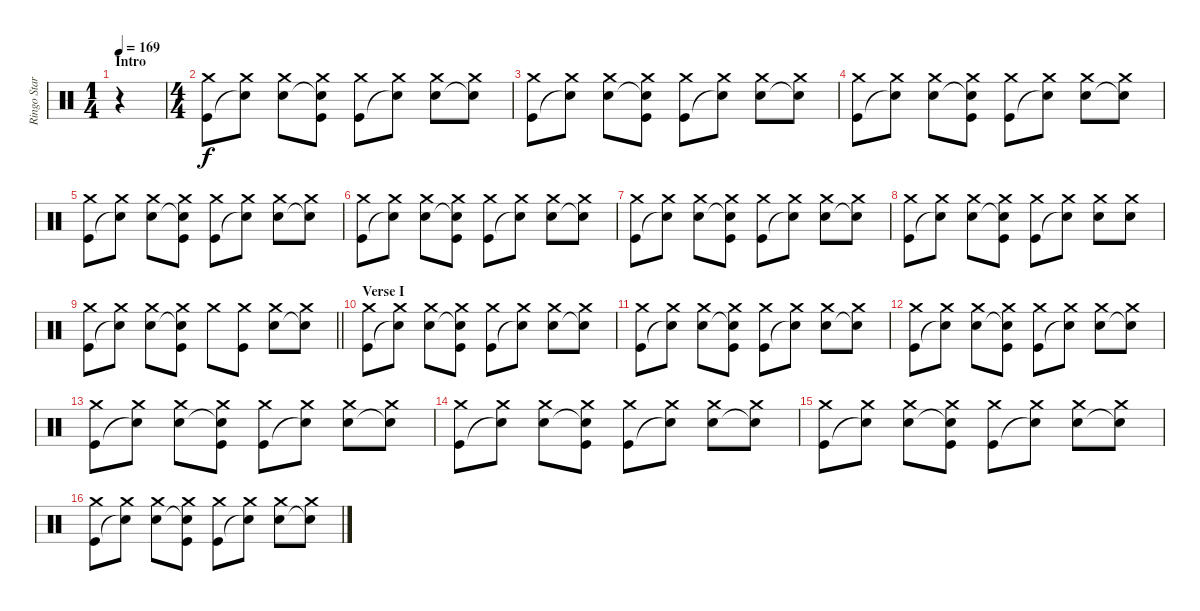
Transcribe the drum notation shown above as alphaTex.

\track ("Ringo Starr" "Ringo Star") {instrument percussion}
\staff {score}
\articulation defaults
\ts (1 4)
\section ("" "Intro")
\tempo 169
\clef neutral
\ks c
r.4{dy f} |
\ts (4 4)
("Crash medium (hit)" "Kick (hit)").8 ("Crash medium (hit)" "Snare (hit)"{t}).8 ("Crash medium (hit)" "Snare (hit) 2").8 ("Crash medium (hit)" "Snare (hit)"{t} "Kick (hit)").8 ("Crash medium (hit)" "Kick (hit)").8 ("Crash medium (hit)" "Snare (hit)"{t}).8 ("Crash medium (hit)" "Snare (hit) 2").8 ("Crash medium (hit)" "Snare (hit)"{t}).8 |
("Crash medium (hit)" "Kick (hit)").8 ("Crash medium (hit)" "Snare (hit)"{t}).8 ("Crash medium (hit)" "Snare (hit) 2").8 ("Crash medium (hit)" "Snare (hit)"{t} "Kick (hit)").8 ("Crash medium (hit)" "Kick (hit)").8 ("Crash medium (hit)" "Snare (hit)"{t}).8 ("Crash medium (hit)" "Snare (hit) 2").8 ("Crash medium (hit)" "Snare (hit)"{t}).8 |
("Crash medium (hit)" "Kick (hit)").8 ("Crash medium (hit)" "Snare (hit)"{t}).8 ("Crash medium (hit)" "Snare (hit) 2").8 ("Crash medium (hit)" "Snare (hit)"{t} "Kick (hit)").8 ("Crash medium (hit)" "Kick (hit)").8 ("Crash medium (hit)" "Snare (hit)"{t}).8 ("Crash medium (hit)" "Snare (hit) 2").8 ("Crash medium (hit)" "Snare (hit)"{t}).8 |
("Crash medium (hit)" "Kick (hit)").8 ("Crash medium (hit)" "Snare (hit)"{t}).8 ("Crash medium (hit)" "Snare (hit) 2").8 ("Crash medium (hit)" "Snare (hit)"{t} "Kick (hit)").8 ("Crash medium (hit)" "Kick (hit)").8 ("Crash medium (hit)" "Snare (hit)"{t}).8 ("Crash medium (hit)" "Snare (hit) 2").8 ("Crash medium (hit)" "Snare (hit)"{t}).8 |
("Crash medium (hit)" "Kick (hit)").8 ("Crash medium (hit)" "Snare (hit)"{t}).8 ("Crash medium (hit)" "Snare (hit) 2").8 ("Crash medium (hit)" "Snare (hit)"{t} "Kick (hit)").8 ("Crash medium (hit)" "Kick (hit)").8 ("Crash medium (hit)" "Snare (hit)"{t}).8 ("Crash medium (hit)" "Snare (hit) 2").8 ("Crash medium (hit)" "Snare (hit)"{t}).8 |
("Crash medium (hit)" "Kick (hit)").8 ("Crash medium (hit)" "Snare (hit)"{t}).8 ("Crash medium (hit)" "Snare (hit) 2").8 ("Crash medium (hit)" "Snare (hit)"{t} "Kick (hit)").8 ("Crash medium (hit)" "Kick (hit)").8 ("Crash medium (hit)" "Snare (hit)"{t}).8 ("Crash medium (hit)" "Snare (hit) 2").8 ("Crash medium (hit)" "Snare (hit)"{t}).8 |
("Crash medium (hit)" "Kick (hit)").8 ("Crash medium (hit)" "Snare (hit)"{t}).8 ("Crash medium (hit)" "Snare (hit) 2").8 ("Crash medium (hit)" "Snare (hit)"{t} "Kick (hit)").8 ("Crash medium (hit)" "Kick (hit)").8 ("Crash medium (hit)" "Snare (hit)"{t}).8 ("Crash medium (hit)" "Snare (hit) 2").8 ("Crash medium (hit)" "Snare (hit) 2").8 |
\barLineRight lightlight
("Crash medium (hit)" "Kick (hit)").8 ("Crash medium (hit)" "Snare (hit)"{t}).8 ("Crash medium (hit)" "Snare (hit) 2").8 ("Crash medium (hit)" "Snare (hit)"{t} "Kick (hit)").8 "Crash medium (hit)".8 ("Crash medium (hit)" "Kick (hit)").8 ("Crash medium (hit)" "Snare (hit) 2").8 ("Crash medium (hit)" "Snare (hit)"{t}).8 |
\section ("" "Verse I")
("Crash medium (hit)" "Kick (hit)").8 ("Crash medium (hit)" "Snare (hit)"{t}).8 ("Crash medium (hit)" "Snare (hit) 2").8 ("Crash medium (hit)" "Snare (hit)"{t} "Kick (hit)").8 ("Crash medium (hit)" "Kick (hit)").8 ("Crash medium (hit)" "Snare (hit)"{t}).8 ("Crash medium (hit)" "Snare (hit) 2").8 ("Crash medium (hit)" "Snare (hit)"{t}).8 |
("Crash medium (hit)" "Kick (hit)").8 ("Crash medium (hit)" "Snare (hit)"{t}).8 ("Crash medium (hit)" "Snare (hit) 2").8 ("Crash medium (hit)" "Snare (hit)"{t} "Kick (hit)").8 ("Crash medium (hit)" "Kick (hit)").8 ("Crash medium (hit)" "Snare (hit)"{t}).8 ("Crash medium (hit)" "Snare (hit) 2").8 ("Crash medium (hit)" "Snare (hit)"{t}).8 |
("Crash medium (hit)" "Kick (hit)").8 ("Crash medium (hit)" "Snare (hit)"{t}).8 ("Crash medium (hit)" "Snare (hit) 2").8 ("Crash medium (hit)" "Snare (hit)"{t} "Kick (hit)").8 ("Crash medium (hit)" "Kick (hit)").8 ("Crash medium (hit)" "Snare (hit)"{t}).8 ("Crash medium (hit)" "Snare (hit) 2").8 ("Crash medium (hit)" "Snare (hit)"{t}).8 |
("Crash medium (hit)" "Kick (hit)").8 ("Crash medium (hit)" "Snare (hit)"{t}).8 ("Crash medium (hit)" "Snare (hit) 2").8 ("Crash medium (hit)" "Snare (hit)"{t} "Kick (hit)").8 ("Crash medium (hit)" "Kick (hit)").8 ("Crash medium (hit)" "Snare (hit)"{t}).8 ("Crash medium (hit)" "Snare (hit) 2").8 ("Crash medium (hit)" "Snare (hit)"{t}).8 |
("Crash medium (hit)" "Kick (hit)").8 ("Crash medium (hit)" "Snare (hit)"{t}).8 ("Crash medium (hit)" "Snare (hit) 2").8 ("Crash medium (hit)" "Snare (hit)"{t} "Kick (hit)").8 ("Crash medium (hit)" "Kick (hit)").8 ("Crash medium (hit)" "Snare (hit)"{t}).8 ("Crash medium (hit)" "Snare (hit) 2").8 ("Crash medium (hit)" "Snare (hit)"{t}).8 |
("Crash medium (hit)" "Kick (hit)").8 ("Crash medium (hit)" "Snare (hit)"{t}).8 ("Crash medium (hit)" "Snare (hit) 2").8 ("Crash medium (hit)" "Snare (hit)"{t} "Kick (hit)").8 ("Crash medium (hit)" "Kick (hit)").8 ("Crash medium (hit)" "Snare (hit)"{t}).8 ("Crash medium (hit)" "Snare (hit) 2").8 ("Crash medium (hit)" "Snare (hit)"{t}).8 |
("Crash medium (hit)" "Kick (hit)").8 ("Crash medium (hit)" "Snare (hit)"{t}).8 ("Crash medium (hit)" "Snare (hit) 2").8 ("Crash medium (hit)" "Snare (hit)"{t} "Kick (hit)").8 ("Crash medium (hit)" "Kick (hit)").8 ("Crash medium (hit)" "Snare (hit)"{t}).8 ("Crash medium (hit)" "Snare (hit) 2").8 ("Crash medium (hit)" "Snare (hit)"{t}).8
